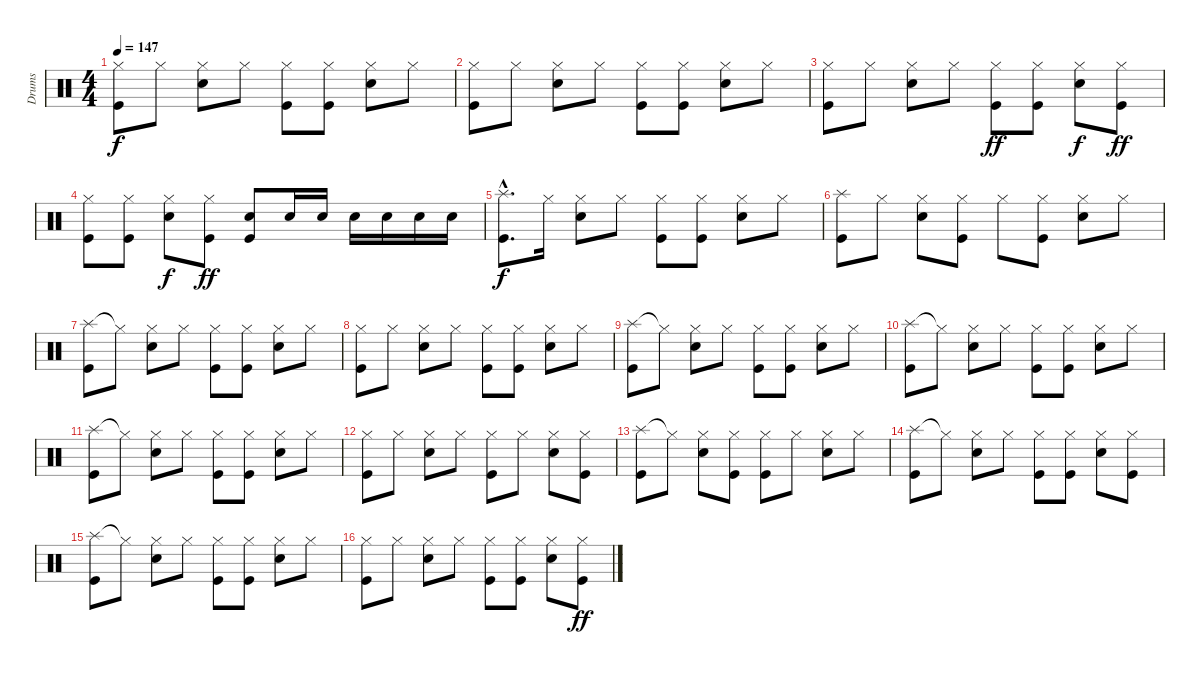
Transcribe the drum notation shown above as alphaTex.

\track ("Drums" "Drums") {instrument percussion}
\staff {score}
\articulation defaults
\ts (4 4)
\tempo 147
\clef neutral
\ks c
("Hi-Hat (closed)" "Kick (hit)").8{dy f} "Hi-Hat (closed)".8 ("Hi-Hat (closed)" "Snare (hit) 2").8 "Hi-Hat (closed)".8 ("Hi-Hat (closed)" "Kick (hit)").8 ("Hi-Hat (closed)" "Kick (hit)").8 ("Hi-Hat (closed)" "Snare (hit) 2").8 "Hi-Hat (closed)".8 |
("Hi-Hat (closed)" "Kick (hit)").8 "Hi-Hat (closed)".8 ("Hi-Hat (closed)" "Snare (hit) 2").8 "Hi-Hat (closed)".8 ("Hi-Hat (closed)" "Kick (hit)").8 ("Hi-Hat (closed)" "Kick (hit)").8 ("Hi-Hat (closed)" "Snare (hit) 2").8 "Hi-Hat (closed)".8 |
("Hi-Hat (closed)" "Kick (hit)").8 "Hi-Hat (closed)".8 ("Hi-Hat (closed)" "Snare (hit) 2").8 "Hi-Hat (closed)".8 ("Hi-Hat (closed)" "Kick (hit)").8{dy ff} ("Hi-Hat (closed)" "Kick (hit)").8 ("Hi-Hat (closed)" "Snare (hit) 2").8{dy f} ("Hi-Hat (closed)" "Kick (hit)").8{dy ff} |
("Hi-Hat (closed)" "Kick (hit)").8 ("Hi-Hat (closed)" "Kick (hit)").8 ("Hi-Hat (closed)" "Snare (hit) 2").8{dy f} ("Hi-Hat (closed)" "Kick (hit)").8{dy ff} ("Snare (hit) 2" "Kick (hit)").8 "Snare (hit) 2".16 "Snare (hit) 2".16 "Snare (hit) 2".16 "Snare (hit) 2".16 "Snare (hit) 2".16 "Snare (hit) 2".16 |
("Splash (hit)"{hac} "Kick (hit)"{hac}).8{d dy f} "Hi-Hat (closed)".16 ("Hi-Hat (closed)" "Snare (hit) 2").8 "Hi-Hat (closed)".8 ("Hi-Hat (closed)" "Kick (hit)").8 ("Hi-Hat (closed)" "Kick (hit)").8 ("Hi-Hat (closed)" "Snare (hit) 2").8 "Hi-Hat (closed)".8 |
("Splash (hit)" "Kick (hit)").8 "Hi-Hat (closed)".8 ("Hi-Hat (closed)" "Snare (hit) 2").8 ("Hi-Hat (closed)" "Kick (hit)").8 "Hi-Hat (closed)".8 ("Hi-Hat (closed)" "Kick (hit)").8 ("Hi-Hat (closed)" "Snare (hit) 2").8 "Hi-Hat (closed)".8 |
("Splash (hit)" "Kick (hit)").8 "Hi-Hat (closed)"{t}.8 ("Hi-Hat (closed)" "Snare (hit) 2").8 "Hi-Hat (closed)".8 ("Hi-Hat (closed)" "Kick (hit)").8 ("Hi-Hat (closed)" "Kick (hit)").8 ("Hi-Hat (closed)" "Snare (hit) 2").8 "Hi-Hat (closed)".8 |
("Hi-Hat (closed)" "Kick (hit)").8 "Hi-Hat (closed)".8 ("Hi-Hat (closed)" "Snare (hit) 2").8 "Hi-Hat (closed)".8 ("Hi-Hat (closed)" "Kick (hit)").8 ("Hi-Hat (closed)" "Kick (hit)").8 ("Hi-Hat (closed)" "Snare (hit) 2").8 "Hi-Hat (closed)".8 |
("Splash (hit)" "Kick (hit)").8 "Hi-Hat (closed)"{t}.8 ("Hi-Hat (closed)" "Snare (hit) 2").8 "Hi-Hat (closed)".8 ("Hi-Hat (closed)" "Kick (hit)").8 ("Hi-Hat (closed)" "Kick (hit)").8 ("Hi-Hat (closed)" "Snare (hit) 2").8 "Hi-Hat (closed)".8 |
("Splash (hit)" "Kick (hit)").8 "Hi-Hat (closed)"{t}.8 ("Hi-Hat (closed)" "Snare (hit) 2").8 "Hi-Hat (closed)".8 ("Hi-Hat (closed)" "Kick (hit)").8 ("Hi-Hat (closed)" "Kick (hit)").8 ("Hi-Hat (closed)" "Snare (hit) 2").8 "Hi-Hat (closed)".8 |
("Splash (hit)" "Kick (hit)").8 "Hi-Hat (closed)"{t}.8 ("Hi-Hat (closed)" "Snare (hit) 2").8 "Hi-Hat (closed)".8 ("Hi-Hat (closed)" "Kick (hit)").8 ("Hi-Hat (closed)" "Kick (hit)").8 ("Hi-Hat (closed)" "Snare (hit) 2").8 "Hi-Hat (closed)".8 |
("Hi-Hat (closed)" "Kick (hit)").8 "Hi-Hat (closed)".8 ("Hi-Hat (closed)" "Snare (hit) 2").8 "Hi-Hat (closed)".8 ("Hi-Hat (closed)" "Kick (hit)").8 "Hi-Hat (closed)".8 ("Hi-Hat (closed)" "Snare (hit) 2").8 ("Hi-Hat (closed)" "Kick (hit)").8 |
("Splash (hit)" "Kick (hit)").8 "Hi-Hat (closed)"{t}.8 ("Hi-Hat (closed)" "Snare (hit) 2").8 ("Hi-Hat (closed)" "Kick (hit)").8 ("Hi-Hat (closed)" "Kick (hit)").8 "Hi-Hat (closed)".8 ("Hi-Hat (closed)" "Snare (hit) 2").8 "Hi-Hat (closed)".8 |
("Splash (hit)" "Kick (hit)").8 "Hi-Hat (closed)"{t}.8 ("Hi-Hat (closed)" "Snare (hit) 2").8 "Hi-Hat (closed)".8 ("Hi-Hat (closed)" "Kick (hit)").8 ("Hi-Hat (closed)" "Kick (hit)").8 ("Hi-Hat (closed)" "Snare (hit) 2").8 ("Hi-Hat (closed)" "Kick (hit)").8 |
("Splash (hit)" "Kick (hit)").8 "Hi-Hat (closed)"{t}.8 ("Hi-Hat (closed)" "Snare (hit) 2").8 "Hi-Hat (closed)".8 ("Hi-Hat (closed)" "Kick (hit)").8 ("Hi-Hat (closed)" "Kick (hit)").8 ("Hi-Hat (closed)" "Snare (hit) 2").8 "Hi-Hat (closed)".8 |
("Hi-Hat (closed)" "Kick (hit)").8 "Hi-Hat (closed)".8 ("Hi-Hat (closed)" "Snare (hit) 2").8 "Hi-Hat (closed)".8 ("Hi-Hat (closed)" "Kick (hit)").8 ("Hi-Hat (closed)" "Kick (hit)").8 ("Hi-Hat (closed)" "Snare (hit) 2").8 ("Hi-Hat (closed)" "Kick (hit)").8{dy ff}
